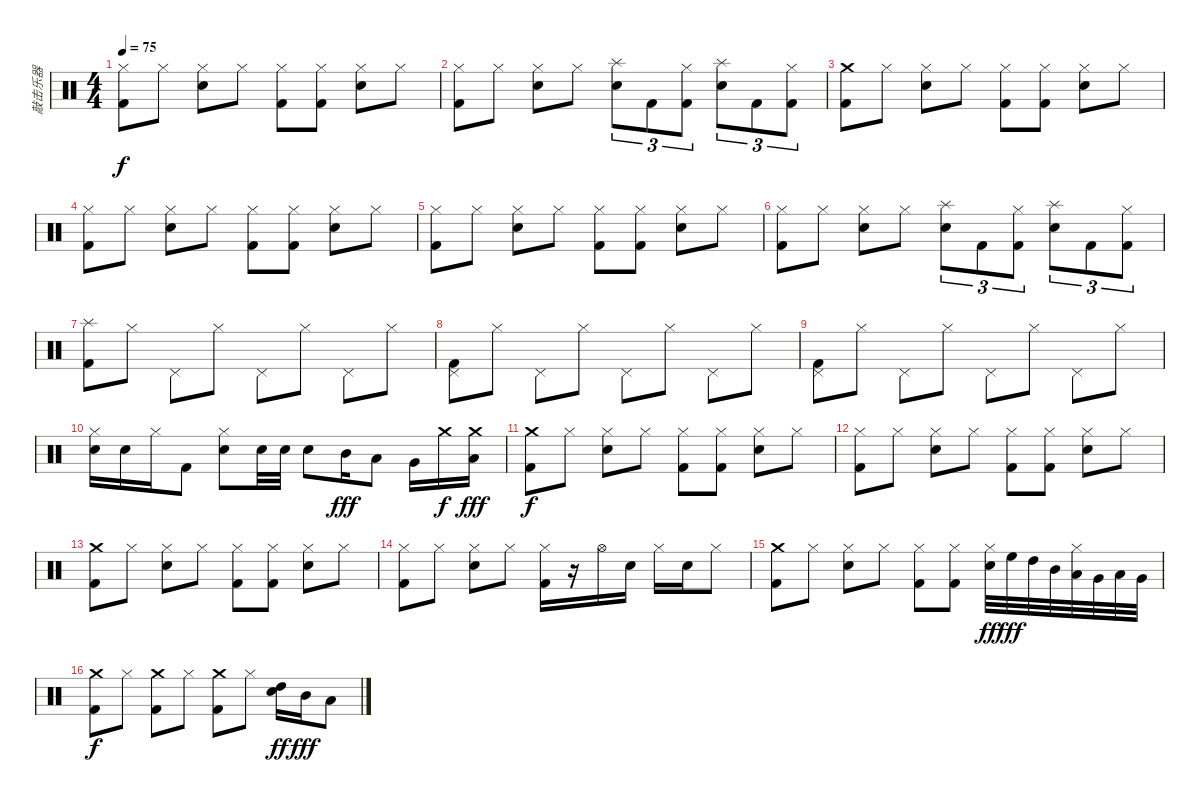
\track ("敲击乐器" "敲击乐器") {instrument percussion}
\staff {score}
\articulation defaults
\ts (4 4)
\tempo 75
\clef neutral
\ks c
("Hi-Hat (closed)" "Kick (hit) 2").8{dy f} "Hi-Hat (closed)".8 ("Hi-Hat (closed)" "Electric Snare (hit)").8 "Hi-Hat (closed)".8 ("Hi-Hat (closed)" "Kick (hit) 2").8 ("Hi-Hat (closed)" "Kick (hit) 2").8 ("Hi-Hat (closed)" "Electric Snare (hit)").8 "Hi-Hat (closed)".8 |
("Hi-Hat (closed)" "Kick (hit) 2").8 "Hi-Hat (closed)".8 ("Hi-Hat (closed)" "Electric Snare (hit)").8 "Hi-Hat (closed)".8 ("Splash (hit)" "Electric Snare (hit)").8{tu (3 2)} "Kick (hit) 2".8{tu (3 2)} ("Hi-Hat (closed)" "Kick (hit) 2").8{tu (3 2)} ("Splash (hit)" "Electric Snare (hit)").8{tu (3 2)} "Kick (hit) 2".8{tu (3 2)} ("Hi-Hat (closed)" "Kick (hit) 2").8{tu (3 2)} |
("Crash medium (hit)" "Kick (hit) 2").8 "Hi-Hat (closed)".8 ("Hi-Hat (closed)" "Electric Snare (hit)").8 "Hi-Hat (closed)".8 ("Hi-Hat (closed)" "Kick (hit) 2").8 ("Hi-Hat (closed)" "Kick (hit) 2").8 ("Hi-Hat (closed)" "Electric Snare (hit)").8 "Hi-Hat (closed)".8 |
("Hi-Hat (closed)" "Kick (hit) 2").8 "Hi-Hat (closed)".8 ("Hi-Hat (closed)" "Electric Snare (hit)").8 "Hi-Hat (closed)".8 ("Hi-Hat (closed)" "Kick (hit) 2").8 ("Hi-Hat (closed)" "Kick (hit) 2").8 ("Hi-Hat (closed)" "Electric Snare (hit)").8 "Hi-Hat (closed)".8 |
("Hi-Hat (closed)" "Kick (hit) 2").8 "Hi-Hat (closed)".8 ("Hi-Hat (closed)" "Electric Snare (hit)").8 "Hi-Hat (closed)".8 ("Hi-Hat (closed)" "Kick (hit) 2").8 ("Hi-Hat (closed)" "Kick (hit) 2").8 ("Hi-Hat (closed)" "Electric Snare (hit)").8 "Hi-Hat (closed)".8 |
("Hi-Hat (closed)" "Kick (hit) 2").8 "Hi-Hat (closed)".8 ("Hi-Hat (closed)" "Electric Snare (hit)").8 "Hi-Hat (closed)".8 ("Splash (hit)" "Electric Snare (hit)").8{tu (3 2)} "Kick (hit) 2".8{tu (3 2)} ("Hi-Hat (closed)" "Kick (hit) 2").8{tu (3 2)} ("Splash (hit)" "Electric Snare (hit)").8{tu (3 2)} "Kick (hit) 2".8{tu (3 2)} ("Hi-Hat (closed)" "Kick (hit) 2").8{tu (3 2)} |
("Splash (hit)" "Kick (hit) 2").8 "Hi-Hat (closed)".8 "Pedal Hi-Hat (hit)".8 "Hi-Hat (closed)".8 "Pedal Hi-Hat (hit)".8 "Hi-Hat (closed)".8 "Pedal Hi-Hat (hit)".8 "Hi-Hat (closed)".8 |
("Pedal Hi-Hat (hit)" "Kick (hit) 2").8 "Hi-Hat (closed)".8 "Pedal Hi-Hat (hit)".8 "Hi-Hat (closed)".8 "Pedal Hi-Hat (hit)".8 "Hi-Hat (closed)".8 "Pedal Hi-Hat (hit)".8 "Hi-Hat (closed)".8 |
("Pedal Hi-Hat (hit)" "Kick (hit) 2").8 "Hi-Hat (closed)".8 "Pedal Hi-Hat (hit)".8 "Hi-Hat (closed)".8 "Pedal Hi-Hat (hit)".8 "Hi-Hat (closed)".8 "Pedal Hi-Hat (hit)".8 "Hi-Hat (closed)".8 |
("Hi-Hat (closed)" "Electric Snare (hit)").16 "Electric Snare (hit)".16 "Hi-Hat (closed)".16 "Kick (hit) 2".8 ("Hi-Hat (closed)" "Electric Snare (hit)").8 "Electric Snare (hit)".32 "Electric Snare (hit)".32 "Electric Snare (hit)".8 "Mid Tom (hit)".16{dy fff} "Low Tom (hit)".8 "Very Low Tom (hit)".16 "Crash medium (hit)".16{dy f} ("Crash medium (hit)" "Low Floor Tom (hit)").16{dy fff} |
("Crash medium (hit)" "Kick (hit) 2").8{dy f} "Hi-Hat (closed)".8 ("Hi-Hat (closed)" "Electric Snare (hit)").8 "Hi-Hat (closed)".8 ("Hi-Hat (closed)" "Kick (hit) 2").8 ("Hi-Hat (closed)" "Kick (hit) 2").8 ("Hi-Hat (closed)" "Electric Snare (hit)").8 "Hi-Hat (closed)".8 |
("Hi-Hat (closed)" "Kick (hit) 2").8 "Hi-Hat (closed)".8 ("Hi-Hat (closed)" "Electric Snare (hit)").8 "Hi-Hat (closed)".8 ("Hi-Hat (closed)" "Kick (hit) 2").8 ("Hi-Hat (closed)" "Kick (hit) 2").8 ("Hi-Hat (closed)" "Electric Snare (hit)").8 "Hi-Hat (closed)".8 |
("Crash medium (hit)" "Kick (hit) 2").8 "Hi-Hat (closed)".8 ("Hi-Hat (closed)" "Electric Snare (hit)").8 "Hi-Hat (closed)".8 ("Hi-Hat (closed)" "Kick (hit) 2").8 ("Hi-Hat (closed)" "Kick (hit) 2").8 ("Hi-Hat (closed)" "Electric Snare (hit)").8 "Hi-Hat (closed)".8 |
("Hi-Hat (closed)" "Kick (hit) 2").8 "Hi-Hat (closed)".8 ("Hi-Hat (closed)" "Electric Snare (hit)").8 "Hi-Hat (closed)".8 ("Hi-Hat (closed)" "Kick (hit) 2").16 r.16 "Hi-Hat (open)".16 "Electric Snare (hit)".16 "Hi-Hat (closed)".16 "Electric Snare (hit)".16 "Hi-Hat (closed)".8 |
("Crash medium (hit)" "Kick (hit) 2").8 "Hi-Hat (closed)".8 ("Hi-Hat (closed)" "Electric Snare (hit)").8 "Hi-Hat (closed)".8 ("Hi-Hat (closed)" "Kick (hit) 2").8 ("Hi-Hat (closed)" "Kick (hit) 2").8 ("Hi-Hat (closed)" "Electric Snare (hit)").32{dy ff} "High Floor Tom (hit)".32{dy fff} "High Tom (hit)".32 "Mid Tom (hit)".32 ("Hi-Hat (closed)" "Low Tom (hit)").32 "Very Low Tom (hit)".32 "Low Floor Tom (hit)".32 "Very Low Tom (hit)".32 |
("Crash medium (hit)" "Kick (hit) 2").8{dy f} "Hi-Hat (closed)".8 ("Crash medium (hit)" "Kick (hit) 2").8 "Hi-Hat (closed)".8 ("Crash medium (hit)" "Kick (hit) 2").8 "Hi-Hat (closed)".8 ("High Tom (hit)" "Electric Snare (hit)").16{dy ff} "Mid Tom (hit)".16{dy fff} "Low Tom (hit)".8
